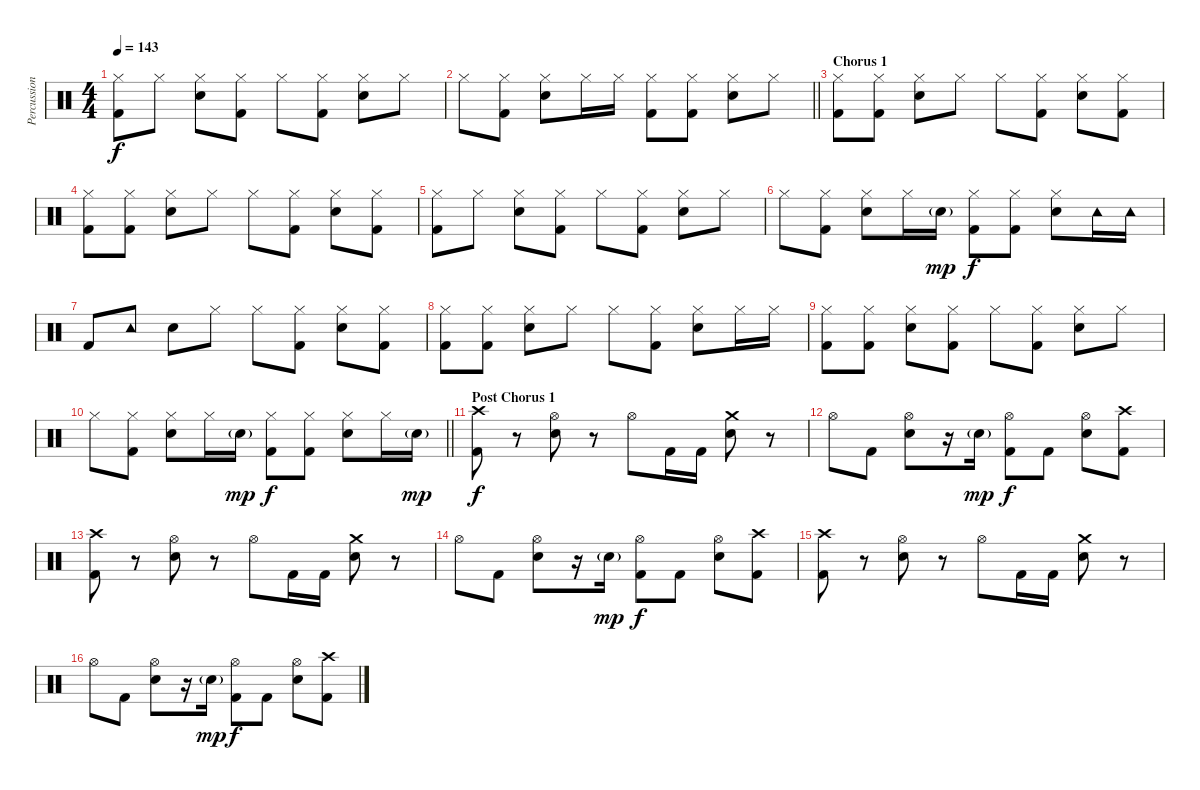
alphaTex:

\track ("Percussion" "Percussion") {instrument percussion}
\staff {score}
\articulation defaults
\ts (4 4)
\tempo 143
\clef neutral
\ks c
("Hi-Hat (closed)" "Kick (hit) 2").8{dy f} "Hi-Hat (closed)".8 ("Hi-Hat (closed)" "Snare (hit) 2").8 ("Hi-Hat (closed)" "Kick (hit) 2").8 "Hi-Hat (closed)".8 ("Hi-Hat (closed)" "Kick (hit) 2").8 ("Hi-Hat (closed)" "Snare (hit) 2").8 "Hi-Hat (closed)".8 |
\barLineRight lightlight "Hi-Hat (closed)".8
("Hi-Hat (closed)" "Kick (hit) 2").8 ("Hi-Hat (closed)" "Snare (hit) 2").8 "Hi-Hat (closed)".16 "Hi-Hat (closed)".16 ("Hi-Hat (closed)" "Kick (hit) 2").8 ("Hi-Hat (closed)" "Kick (hit) 2").8 ("Hi-Hat (closed)" "Snare (hit) 2").8 "Hi-Hat (closed)".8 |
\section ("" "Chorus 1")
("Hi-Hat (closed)" "Kick (hit) 2").8 ("Hi-Hat (closed)" "Kick (hit) 2").8 ("Hi-Hat (closed)" "Snare (hit) 2").8 "Hi-Hat (closed)".8 "Hi-Hat (closed)".8 ("Hi-Hat (closed)" "Kick (hit) 2").8 ("Hi-Hat (closed)" "Snare (hit) 2").8 ("Hi-Hat (closed)" "Kick (hit) 2").8 |
("Hi-Hat (closed)" "Kick (hit) 2").8 ("Hi-Hat (closed)" "Kick (hit) 2").8 ("Hi-Hat (closed)" "Snare (hit) 2").8 "Hi-Hat (closed)".8 "Hi-Hat (closed)".8 ("Hi-Hat (closed)" "Kick (hit) 2").8 ("Hi-Hat (closed)" "Snare (hit) 2").8 ("Hi-Hat (closed)" "Kick (hit) 2").8 |
("Hi-Hat (closed)" "Kick (hit) 2").8 "Hi-Hat (closed)".8 ("Hi-Hat (closed)" "Snare (hit) 2").8 ("Hi-Hat (closed)" "Kick (hit) 2").8 "Hi-Hat (closed)".8 ("Hi-Hat (closed)" "Kick (hit) 2").8 ("Hi-Hat (closed)" "Snare (hit) 2").8 "Hi-Hat (closed)".8 |
"Hi-Hat (closed)".8 ("Hi-Hat (closed)" "Kick (hit) 2").8 ("Hi-Hat (closed)" "Snare (hit) 2").8 "Hi-Hat (closed)".16 "Snare (hit) 2"{g}.16{dy mp} ("Hi-Hat (closed)" "Kick (hit) 2").8{dy f} ("Hi-Hat (closed)" "Kick (hit) 2").8 ("Hi-Hat (closed)" "Snare (hit) 2").8 "Tambourine (hit)".16 "Tambourine (hit)".16 |
"Kick (hit) 2".8 "Tambourine (hit)".8 "Snare (hit) 2".8 "Hi-Hat (closed)".8 "Hi-Hat (closed)".8 ("Hi-Hat (closed)" "Kick (hit) 2").8 ("Hi-Hat (closed)" "Snare (hit) 2").8 ("Hi-Hat (closed)" "Kick (hit) 2").8 |
("Hi-Hat (closed)" "Kick (hit) 2").8 ("Hi-Hat (closed)" "Kick (hit) 2").8 ("Hi-Hat (closed)" "Snare (hit) 2").8 "Hi-Hat (closed)".8 "Hi-Hat (closed)".8 ("Hi-Hat (closed)" "Kick (hit) 2").8 ("Hi-Hat (closed)" "Snare (hit) 2").8 "Hi-Hat (closed)".16 "Hi-Hat (closed)".16 |
("Hi-Hat (closed)" "Kick (hit) 2").8 ("Hi-Hat (closed)" "Kick (hit) 2").8 ("Hi-Hat (closed)" "Snare (hit) 2").8 ("Hi-Hat (closed)" "Kick (hit) 2").8 "Hi-Hat (closed)".8 ("Hi-Hat (closed)" "Kick (hit) 2").8 ("Hi-Hat (closed)" "Snare (hit) 2").8 "Hi-Hat (closed)".8 |
\barLineRight lightlight "Hi-Hat (closed)".8
("Hi-Hat (closed)" "Kick (hit) 2").8 ("Hi-Hat (closed)" "Snare (hit) 2").8 "Hi-Hat (closed)".16 "Snare (hit) 2"{g}.16{dy mp} ("Hi-Hat (closed)" "Kick (hit) 2").8{dy f} ("Hi-Hat (closed)" "Kick (hit) 2").8 ("Hi-Hat (closed)" "Snare (hit) 2").8 "Hi-Hat (closed)".16 "Snare (hit) 2"{g}.16{dy mp} |
\section ("" "Post Chorus 1")
("Crash high (hit)" "Kick (hit) 2").8{dy f} r.8 ("Hi-Hat (open)" "Snare (hit) 2").8 r.8 "Hi-Hat (open)".8 "Kick (hit) 2".16 "Kick (hit) 2".16 ("Crash medium (hit)" "Snare (hit) 2").8 r.8 |
"Hi-Hat (open)".8 "Kick (hit) 2".8 ("Hi-Hat (open)" "Snare (hit) 2").8 r.16 "Snare (hit) 2"{g}.16{dy mp} ("Hi-Hat (open)" "Kick (hit) 2").8{dy f} "Kick (hit) 2".8 ("Hi-Hat (open)" "Snare (hit) 2").8 ("Crash high (hit)" "Kick (hit) 2").8 |
("Crash high (hit)" "Kick (hit) 2").8 r.8 ("Hi-Hat (open)" "Snare (hit) 2").8 r.8 "Hi-Hat (open)".8 "Kick (hit) 2".16 "Kick (hit) 2".16 ("Crash medium (hit)" "Snare (hit) 2").8 r.8 |
"Hi-Hat (open)".8 "Kick (hit) 2".8 ("Hi-Hat (open)" "Snare (hit) 2").8 r.16 "Snare (hit) 2"{g}.16{dy mp} ("Hi-Hat (open)" "Kick (hit) 2").8{dy f} "Kick (hit) 2".8 ("Hi-Hat (open)" "Snare (hit) 2").8 ("Crash high (hit)" "Kick (hit) 2").8 |
("Crash high (hit)" "Kick (hit) 2").8 r.8 ("Hi-Hat (open)" "Snare (hit) 2").8 r.8 "Hi-Hat (open)".8 "Kick (hit) 2".16 "Kick (hit) 2".16 ("Crash medium (hit)" "Snare (hit) 2").8 r.8 |
"Hi-Hat (open)".8 "Kick (hit) 2".8 ("Hi-Hat (open)" "Snare (hit) 2").8 r.16 "Snare (hit) 2"{g}.16{dy mp} ("Hi-Hat (open)" "Kick (hit) 2").8{dy f} "Kick (hit) 2".8 ("Hi-Hat (open)" "Snare (hit) 2").8 ("Crash high (hit)" "Kick (hit) 2").8
